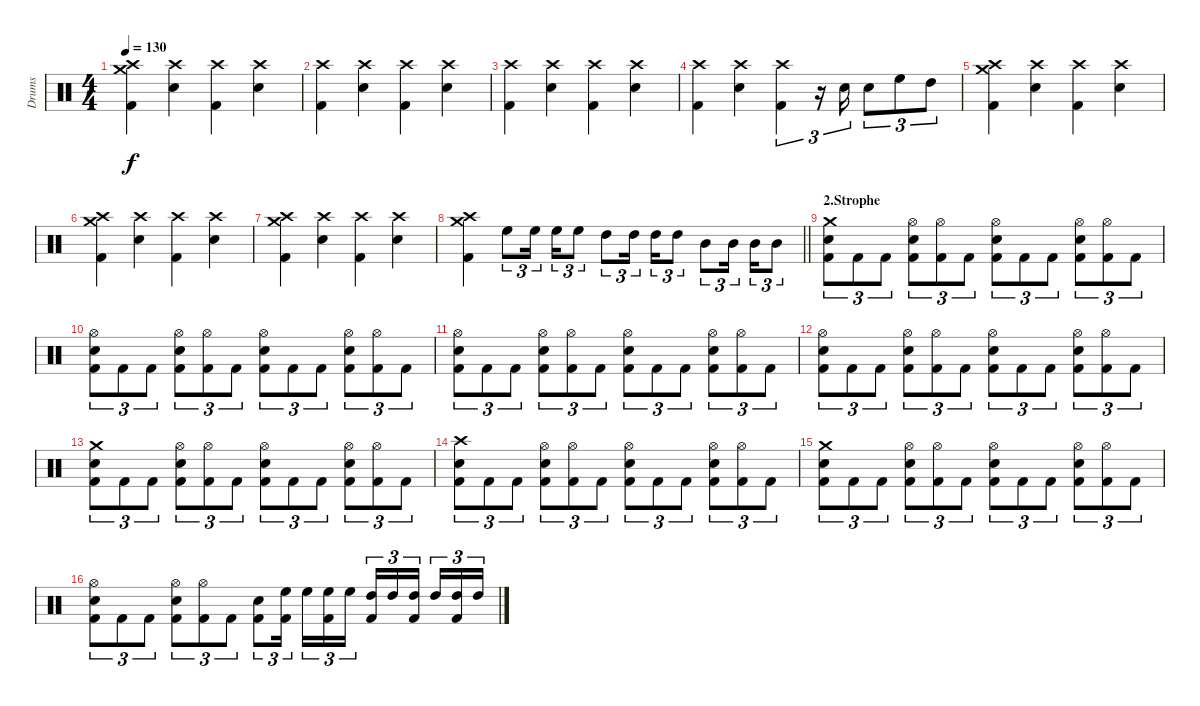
\track ("Drums" "Drums") {instrument percussion}
\staff {score}
\articulation defaults
\ts (4 4)
\section ("" "")
\tempo 130
\clef neutral
\ks c
("Crash medium (hit)" "Crash high (hit)" "Kick (hit) 2").4{dy f} ("Crash high (hit)" "Electric Snare (hit)").4 ("Crash high (hit)" "Kick (hit) 2").4 ("Crash high (hit)" "Electric Snare (hit)").4 |
("Crash high (hit)" "Kick (hit) 2").4 ("Crash high (hit)" "Electric Snare (hit)").4 ("Crash high (hit)" "Kick (hit) 2").4 ("Crash high (hit)" "Electric Snare (hit)").4 |
("Crash high (hit)" "Kick (hit) 2").4 ("Crash high (hit)" "Electric Snare (hit)").4 ("Crash high (hit)" "Kick (hit) 2").4 ("Crash high (hit)" "Electric Snare (hit)").4 |
("Crash high (hit)" "Kick (hit) 2").4 ("Crash high (hit)" "Electric Snare (hit)").4 ("Crash high (hit)" "Kick (hit) 2").4{tu (3 2)} r.16{tu (3 2)} "Electric Snare (hit)".16{tu (3 2)} "Electric Snare (hit)".8{tu (3 2)} "High Floor Tom (hit)".8{tu (3 2)} "High Tom (hit)".8{tu (3 2)} |
("Crash medium (hit)" "Crash high (hit)" "Kick (hit) 2").4 ("Crash high (hit)" "Electric Snare (hit)").4 ("Crash high (hit)" "Kick (hit) 2").4 ("Crash high (hit)" "Electric Snare (hit)").4 |
("Crash medium (hit)" "Crash high (hit)" "Kick (hit) 2").4 ("Crash high (hit)" "Electric Snare (hit)").4 ("Crash high (hit)" "Kick (hit) 2").4 ("Crash high (hit)" "Electric Snare (hit)").4 |
("Crash medium (hit)" "Crash high (hit)" "Kick (hit) 2").4 ("Crash high (hit)" "Electric Snare (hit)").4 ("Crash high (hit)" "Kick (hit) 2").4 ("Crash high (hit)" "Electric Snare (hit)").4 |
\barLineRight lightlight
("Crash medium (hit)" "Crash high (hit)" "Kick (hit) 2").4 "High Floor Tom (hit)".8{tu (3 2)} "High Floor Tom (hit)".16{tu (3 2) beam splitsecondary} "High Floor Tom (hit)".16{tu (3 2)} "High Floor Tom (hit)".8{tu (3 2)} "High Tom (hit)".8{tu (3 2)} "High Tom (hit)".16{tu (3 2) beam splitsecondary} "High Tom (hit)".16{tu (3 2)} "High Tom (hit)".8{tu (3 2)} "Mid Tom (hit)".8{tu (3 2)} "Mid Tom (hit)".16{tu (3 2) beam splitsecondary} "Mid Tom (hit)".16{tu (3 2)} "Mid Tom (hit)".8{tu (3 2)} |
\section ("" "2.Strophe")
("Crash medium (hit)" "Electric Snare (hit)" "Kick (hit) 2").8{tu (3 2)} "Kick (hit) 2".8{tu (3 2)} "Kick (hit) 2".8{tu (3 2)} ("Hi-Hat (open)" "Electric Snare (hit)" "Kick (hit) 2").8{tu (3 2)} ("Hi-Hat (open)" "Kick (hit) 2").8{tu (3 2)} "Kick (hit) 2".8{tu (3 2)} ("Hi-Hat (open)" "Electric Snare (hit)" "Kick (hit) 2").8{tu (3 2)} "Kick (hit) 2".8{tu (3 2)} "Kick (hit) 2".8{tu (3 2)} ("Hi-Hat (open)" "Electric Snare (hit)" "Kick (hit) 2").8{tu (3 2)} ("Hi-Hat (open)" "Kick (hit) 2").8{tu (3 2)} "Kick (hit) 2".8{tu (3 2)} |
("Hi-Hat (open)" "Electric Snare (hit)" "Kick (hit) 2").8{tu (3 2)} "Kick (hit) 2".8{tu (3 2)} "Kick (hit) 2".8{tu (3 2)} ("Hi-Hat (open)" "Electric Snare (hit)" "Kick (hit) 2").8{tu (3 2)} ("Hi-Hat (open)" "Kick (hit) 2").8{tu (3 2)} "Kick (hit) 2".8{tu (3 2)} ("Hi-Hat (open)" "Electric Snare (hit)" "Kick (hit) 2").8{tu (3 2)} "Kick (hit) 2".8{tu (3 2)} "Kick (hit) 2".8{tu (3 2)} ("Hi-Hat (open)" "Electric Snare (hit)" "Kick (hit) 2").8{tu (3 2)} ("Hi-Hat (open)" "Kick (hit) 2").8{tu (3 2)} "Kick (hit) 2".8{tu (3 2)} |
("Hi-Hat (open)" "Electric Snare (hit)" "Kick (hit) 2").8{tu (3 2)} "Kick (hit) 2".8{tu (3 2)} "Kick (hit) 2".8{tu (3 2)} ("Hi-Hat (open)" "Electric Snare (hit)" "Kick (hit) 2").8{tu (3 2)} ("Hi-Hat (open)" "Kick (hit) 2").8{tu (3 2)} "Kick (hit) 2".8{tu (3 2)} ("Hi-Hat (open)" "Electric Snare (hit)" "Kick (hit) 2").8{tu (3 2)} "Kick (hit) 2".8{tu (3 2)} "Kick (hit) 2".8{tu (3 2)} ("Hi-Hat (open)" "Electric Snare (hit)" "Kick (hit) 2").8{tu (3 2)} ("Hi-Hat (open)" "Kick (hit) 2").8{tu (3 2)} "Kick (hit) 2".8{tu (3 2)} |
("Hi-Hat (open)" "Electric Snare (hit)" "Kick (hit) 2").8{tu (3 2)} "Kick (hit) 2".8{tu (3 2)} "Kick (hit) 2".8{tu (3 2)} ("Hi-Hat (open)" "Electric Snare (hit)" "Kick (hit) 2").8{tu (3 2)} ("Hi-Hat (open)" "Kick (hit) 2").8{tu (3 2)} "Kick (hit) 2".8{tu (3 2)} ("Hi-Hat (open)" "Electric Snare (hit)" "Kick (hit) 2").8{tu (3 2)} "Kick (hit) 2".8{tu (3 2)} "Kick (hit) 2".8{tu (3 2)} ("Hi-Hat (open)" "Electric Snare (hit)" "Kick (hit) 2").8{tu (3 2)} ("Hi-Hat (open)" "Kick (hit) 2").8{tu (3 2)} "Kick (hit) 2".8{tu (3 2)} |
("Crash medium (hit)" "Electric Snare (hit)" "Kick (hit) 2").8{tu (3 2)} "Kick (hit) 2".8{tu (3 2)} "Kick (hit) 2".8{tu (3 2)} ("Hi-Hat (open)" "Electric Snare (hit)" "Kick (hit) 2").8{tu (3 2)} ("Hi-Hat (open)" "Kick (hit) 2").8{tu (3 2)} "Kick (hit) 2".8{tu (3 2)} ("Hi-Hat (open)" "Electric Snare (hit)" "Kick (hit) 2").8{tu (3 2)} "Kick (hit) 2".8{tu (3 2)} "Kick (hit) 2".8{tu (3 2)} ("Hi-Hat (open)" "Electric Snare (hit)" "Kick (hit) 2").8{tu (3 2)} ("Hi-Hat (open)" "Kick (hit) 2").8{tu (3 2)} "Kick (hit) 2".8{tu (3 2)} |
("Crash high (hit)" "Electric Snare (hit)" "Kick (hit) 2").8{tu (3 2)} "Kick (hit) 2".8{tu (3 2)} "Kick (hit) 2".8{tu (3 2)} ("Hi-Hat (open)" "Electric Snare (hit)" "Kick (hit) 2").8{tu (3 2)} ("Hi-Hat (open)" "Kick (hit) 2").8{tu (3 2)} "Kick (hit) 2".8{tu (3 2)} ("Hi-Hat (open)" "Electric Snare (hit)" "Kick (hit) 2").8{tu (3 2)} "Kick (hit) 2".8{tu (3 2)} "Kick (hit) 2".8{tu (3 2)} ("Hi-Hat (open)" "Electric Snare (hit)" "Kick (hit) 2").8{tu (3 2)} ("Hi-Hat (open)" "Kick (hit) 2").8{tu (3 2)} "Kick (hit) 2".8{tu (3 2)} |
("Crash medium (hit)" "Electric Snare (hit)" "Kick (hit) 2").8{tu (3 2)} "Kick (hit) 2".8{tu (3 2)} "Kick (hit) 2".8{tu (3 2)} ("Hi-Hat (open)" "Electric Snare (hit)" "Kick (hit) 2").8{tu (3 2)} ("Hi-Hat (open)" "Kick (hit) 2").8{tu (3 2)} "Kick (hit) 2".8{tu (3 2)} ("Hi-Hat (open)" "Electric Snare (hit)" "Kick (hit) 2").8{tu (3 2)} "Kick (hit) 2".8{tu (3 2)} "Kick (hit) 2".8{tu (3 2)} ("Hi-Hat (open)" "Electric Snare (hit)" "Kick (hit) 2").8{tu (3 2)} ("Hi-Hat (open)" "Kick (hit) 2").8{tu (3 2)} "Kick (hit) 2".8{tu (3 2)} |
("Hi-Hat (open)" "Electric Snare (hit)" "Kick (hit) 2").8{tu (3 2)} "Kick (hit) 2".8{tu (3 2)} "Kick (hit) 2".8{tu (3 2)} ("Hi-Hat (open)" "Electric Snare (hit)" "Kick (hit) 2").8{tu (3 2)} ("Hi-Hat (open)" "Kick (hit) 2").8{tu (3 2)} "Kick (hit) 2".8{tu (3 2)} ("Electric Snare (hit)" "Kick (hit) 2").8{tu (3 2)} ("High Floor Tom (hit)" "Kick (hit) 2").16{tu (3 2) beam splitsecondary} "High Floor Tom (hit)".16{tu (3 2)} ("High Floor Tom (hit)" "Kick (hit) 2").16{tu (3 2)} "High Floor Tom (hit)".16{tu (3 2)} ("High Tom (hit)" "Kick (hit) 2").16{tu (3 2)} "High Tom (hit)".16{tu (3 2)} ("High Tom (hit)" "Kick (hit) 2").16{tu (3 2) beam splitsecondary} "High Tom (hit)".16{tu (3 2)} ("High Tom (hit)" "Kick (hit) 2").16{tu (3 2)} "High Tom (hit)".16{tu (3 2)}
